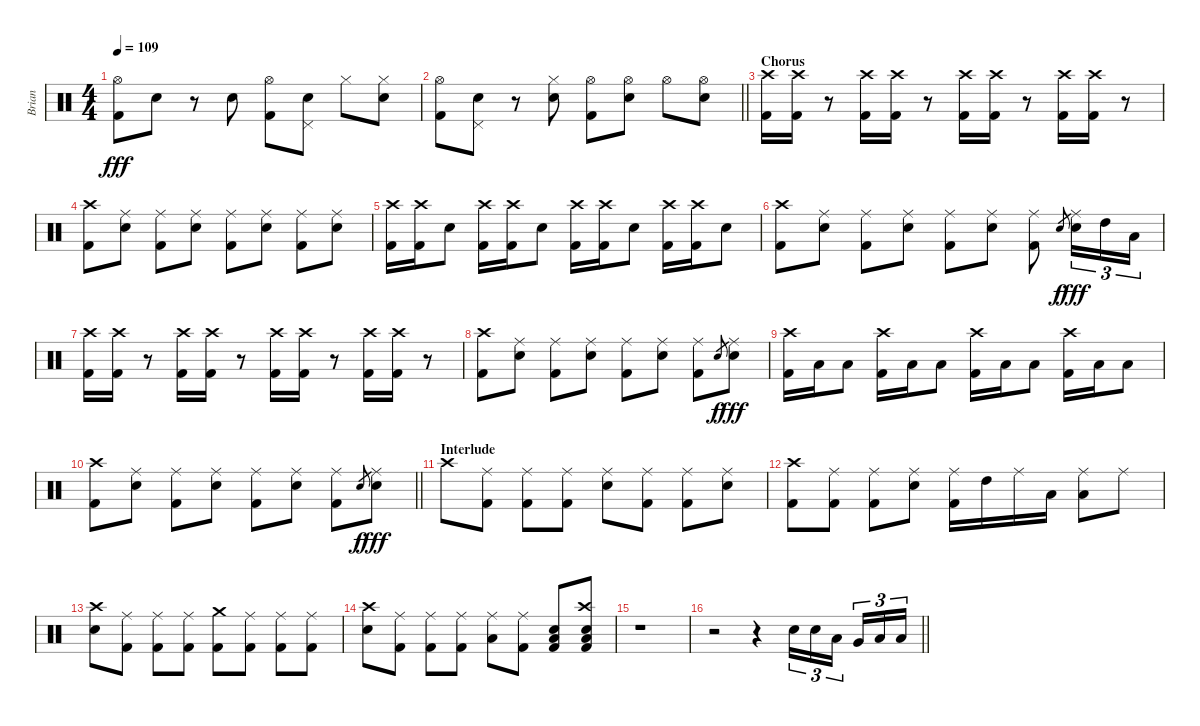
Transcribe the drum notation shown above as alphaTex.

\track ("Brian" "Brian") {instrument percussion}
\staff {score}
\articulation defaults
\ts (4 4)
\tempo 109
\clef neutral
\ks c
("Hi-Hat (open)" "Kick (hit) 2").8{dy fff} "Electric Snare (hit)".8 r.8 "Electric Snare (hit)".8 ("Hi-Hat (open)" "Kick (hit) 2").8 ("Pedal Hi-Hat (hit)" "Electric Snare (hit)").8 "Hi-Hat (closed)".8 ("Hi-Hat (closed)" "Electric Snare (hit)").8 |
\barLineRight lightlight
("Hi-Hat (open)" "Kick (hit) 2").8 ("Pedal Hi-Hat (hit)" "Electric Snare (hit)").8 r.8 ("Hi-Hat (closed)" "Electric Snare (hit)").8 ("Hi-Hat (open)" "Kick (hit) 2").8 ("Hi-Hat (open)" "Electric Snare (hit)").8 "Hi-Hat (open)".8 ("Hi-Hat (open)" "Electric Snare (hit)").8 |
\section ("" "Chorus")
("Crash high (hit)" "Kick (hit) 2").16 ("Crash high (hit)" "Kick (hit) 2").16 r.8{volume 0} ("Crash high (hit)" "Kick (hit) 2").16{volume 14} ("Crash high (hit)" "Kick (hit) 2").16 r.8{volume 0} ("Crash high (hit)" "Kick (hit) 2").16{volume 14} ("Crash high (hit)" "Kick (hit) 2").16 r.8{volume 0} ("Crash high (hit)" "Kick (hit) 2").16{volume 14} ("Crash high (hit)" "Kick (hit) 2").16 r.8{volume 0} |
("Crash high (hit)" "Kick (hit) 2").8{volume 14} ("Ride (middle)" "Electric Snare (hit)").8 ("Ride (middle)" "Kick (hit) 2").8 ("Ride (middle)" "Electric Snare (hit)").8 ("Ride (middle)" "Kick (hit) 2").8 ("Ride (middle)" "Electric Snare (hit)").8 ("Ride (middle)" "Kick (hit) 2").8 ("Ride (middle)" "Electric Snare (hit)").8 |
("Crash high (hit)" "Kick (hit) 2").16 ("Crash high (hit)" "Kick (hit) 2").16 "Snare (hit)"{x}.8{volume 0} ("Crash high (hit)" "Kick (hit) 2").16{volume 14} ("Crash high (hit)" "Kick (hit) 2").16 "Snare (hit)"{x}.8{volume 0} ("Crash high (hit)" "Kick (hit) 2").16{volume 14} ("Crash high (hit)" "Kick (hit) 2").16 "Snare (hit)"{x}.8{volume 0} ("Crash high (hit)" "Kick (hit) 2").16{volume 14} ("Crash high (hit)" "Kick (hit) 2").16 "Snare (hit)"{x}.8{volume 0} |
("Crash high (hit)" "Kick (hit) 2").8{volume 14} ("Ride (middle)" "Electric Snare (hit)").8 ("Ride (middle)" "Kick (hit) 2").8 ("Ride (middle)" "Electric Snare (hit)").8 ("Ride (middle)" "Kick (hit) 2").8 ("Ride (middle)" "Electric Snare (hit)").8 ("Ride (middle)" "Kick (hit) 2").8 "Electric Snare (hit)".8{gr dy f} ("Ride (middle)" "Electric Snare (hit)").16{tu (3 2) dy fff} "High Tom (hit)".16{tu (3 2)} "Low Tom (hit)".16{tu (3 2)} |
("Crash high (hit)" "Kick (hit) 2").16 ("Crash high (hit)" "Kick (hit) 2").16 r.8 ("Crash high (hit)" "Kick (hit) 2").16 ("Crash high (hit)" "Kick (hit) 2").16 r.8 ("Crash high (hit)" "Kick (hit) 2").16 ("Crash high (hit)" "Kick (hit) 2").16 r.8 ("Crash high (hit)" "Kick (hit) 2").16 ("Crash high (hit)" "Kick (hit) 2").16 r.8 |
("Crash high (hit)" "Kick (hit) 2").8 ("Ride (middle)" "Electric Snare (hit)").8 ("Ride (middle)" "Kick (hit) 2").8 ("Ride (middle)" "Electric Snare (hit)").8 ("Ride (middle)" "Kick (hit) 2").8 ("Ride (middle)" "Electric Snare (hit)").8 ("Ride (middle)" "Kick (hit) 2").8 "Electric Snare (hit)".8{gr dy f} ("Ride (middle)" "Electric Snare (hit)").8{dy fff} |
("Crash high (hit)" "Kick (hit) 2").16 "Low Tom (hit)".16 "Low Floor Tom (hit)".8 ("Crash high (hit)" "Kick (hit) 2").16 "Low Tom (hit)".16 "Low Floor Tom (hit)".8 ("Crash high (hit)" "Kick (hit) 2").16 "Low Tom (hit)".16 "Low Floor Tom (hit)".8 ("Crash high (hit)" "Kick (hit) 2").16 "Low Tom (hit)".16 "Low Floor Tom (hit)".8 |
\barLineRight lightlight
("Crash high (hit)" "Kick (hit) 2").8 ("Ride (middle)" "Electric Snare (hit)").8 ("Ride (middle)" "Kick (hit) 2").8 ("Ride (middle)" "Electric Snare (hit)").8 ("Ride (middle)" "Kick (hit) 2").8 ("Ride (middle)" "Electric Snare (hit)").8 ("Ride (middle)" "Kick (hit) 2").8 "Electric Snare (hit)".8{gr dy f} ("Ride (middle)" "Electric Snare (hit)").8{dy fff} |
\section ("" "Interlude")
"Crash high (hit)".8 ("Ride (middle)" "Kick (hit) 2").8 ("Ride (middle)" "Kick (hit) 2").8 ("Ride (middle)" "Kick (hit) 2").8 ("Ride (middle)" "Electric Snare (hit)").8 ("Ride (middle)" "Kick (hit) 2").8 ("Ride (middle)" "Kick (hit) 2").8 ("Ride (middle)" "Electric Snare (hit)").8 |
("Crash high (hit)" "Kick (hit) 2").8 ("Ride (middle)" "Kick (hit) 2").8 ("Ride (middle)" "Kick (hit) 2").8 ("Ride (middle)" "Electric Snare (hit)").8 ("Ride (middle)" "Kick (hit) 2").16 "High Tom (hit)".16 "Ride (middle)".16 "Low Tom (hit)".16 ("Ride (middle)" "Low Floor Tom (hit)").8 "Ride (middle)".8 |
("Crash high (hit)" "Electric Snare (hit)").8 ("Ride (middle)" "Kick (hit) 2").8 ("Ride (middle)" "Kick (hit) 2").8 ("Ride (middle)" "Kick (hit) 2").8 ("Crash medium (hit)" "Kick (hit) 2").8 ("Ride (middle)" "Kick (hit) 2").8 ("Ride (middle)" "Kick (hit) 2").8 ("Ride (middle)" "Kick (hit) 2").8 |
("Crash high (hit)" "Electric Snare (hit)").8 ("Ride (middle)" "Kick (hit) 2").8 ("Ride (middle)" "Kick (hit) 2").8 ("Ride (middle)" "Kick (hit) 2").8 ("Ride (middle)" "Low Tom (hit)").8 ("Ride (middle)" "Kick (hit) 2").8 ("Low Tom (hit)" "Electric Snare (hit)" "Kick (hit) 2").8 ("Crash high (hit)" "Low Tom (hit)" "Electric Snare (hit)" "Kick (hit) 2").8 |
r.1 |
\barLineRight lightlight
r.2 r.4 "Electric Snare (hit)".16{tu (3 2)} "Electric Snare (hit)".16{tu (3 2)} "Low Tom (hit)".16{tu (3 2) beam splitsecondary} "Very Low Tom (hit)".16{tu (3 2)} "Low Floor Tom (hit)".16{tu (3 2)} "Low Floor Tom (hit)".16{tu (3 2)}
